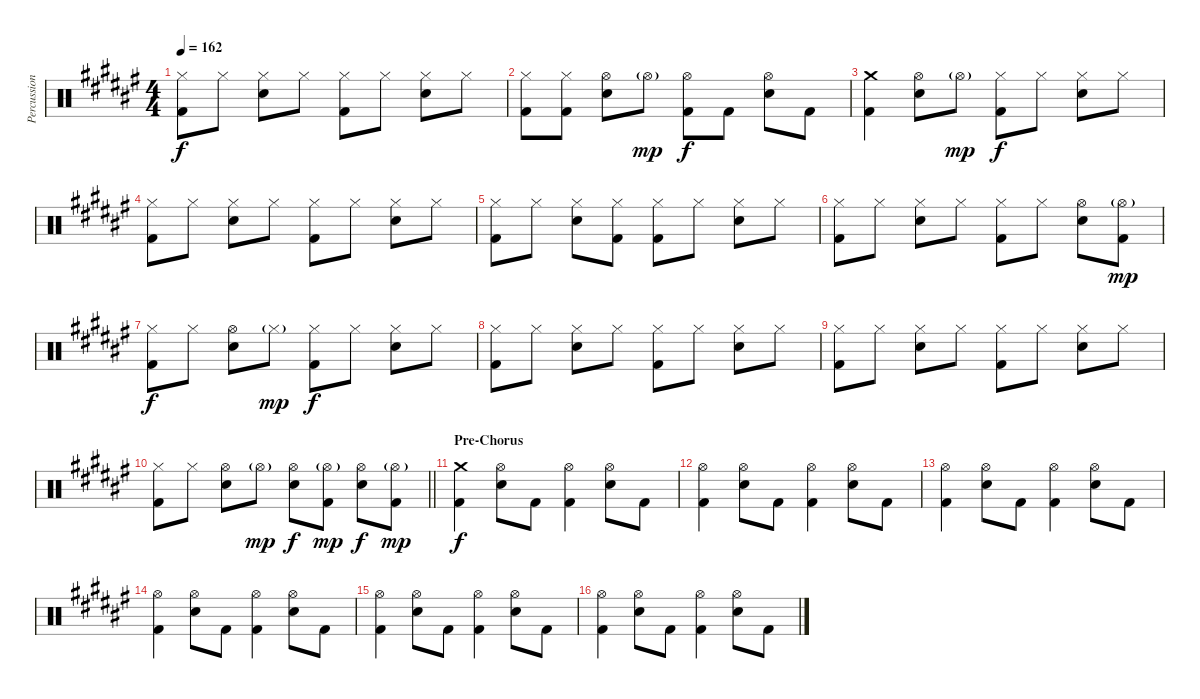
\track ("Percussion" "Percussion") {instrument percussion}
\staff {score}
\articulation defaults
\ts (4 4)
\tempo 162
\clef neutral
\ks f#
("Hi-Hat (closed)" "Kick (hit) 2").8{dy f} "Hi-Hat (closed)".8 ("Hi-Hat (closed)" "Electric Snare (hit)").8 "Hi-Hat (closed)".8 ("Hi-Hat (closed)" "Kick (hit) 2").8 "Hi-Hat (closed)".8 ("Hi-Hat (closed)" "Electric Snare (hit)").8 "Hi-Hat (closed)".8 |
("Hi-Hat (closed)" "Kick (hit) 2").8 ("Hi-Hat (closed)" "Kick (hit) 2").8 ("Hi-Hat (open)" "Electric Snare (hit)").8 "Hi-Hat (open)"{g}.8{dy mp} ("Hi-Hat (open)" "Kick (hit) 2").8{dy f} "Kick (hit) 2".8 ("Hi-Hat (open)" "Electric Snare (hit)").8 "Kick (hit) 2".8 |
("Crash medium (hit)" "Kick (hit) 2").4 ("Hi-Hat (open)" "Electric Snare (hit)").8 "Hi-Hat (open)"{g}.8{dy mp} ("Hi-Hat (closed)" "Kick (hit) 2").8{dy f} "Hi-Hat (closed)".8 ("Hi-Hat (closed)" "Electric Snare (hit)").8 "Hi-Hat (closed)".8 |
("Hi-Hat (closed)" "Kick (hit) 2").8 "Hi-Hat (closed)".8 ("Hi-Hat (closed)" "Electric Snare (hit)").8 "Hi-Hat (closed)".8 ("Hi-Hat (closed)" "Kick (hit) 2").8 "Hi-Hat (closed)".8 ("Hi-Hat (closed)" "Electric Snare (hit)").8 "Hi-Hat (closed)".8 |
("Hi-Hat (closed)" "Kick (hit) 2").8 "Hi-Hat (closed)".8 ("Hi-Hat (closed)" "Electric Snare (hit)").8 ("Hi-Hat (closed)" "Kick (hit) 2").8 ("Hi-Hat (closed)" "Kick (hit) 2").8 "Hi-Hat (closed)".8 ("Hi-Hat (closed)" "Electric Snare (hit)").8 "Hi-Hat (closed)".8 |
("Hi-Hat (closed)" "Kick (hit) 2").8 "Hi-Hat (closed)".8 ("Hi-Hat (closed)" "Electric Snare (hit)").8 "Hi-Hat (closed)".8 ("Hi-Hat (closed)" "Kick (hit) 2").8 "Hi-Hat (closed)".8 ("Hi-Hat (open)" "Electric Snare (hit)").8 ("Hi-Hat (open)"{g} "Kick (hit) 2").8{dy mp} |
("Hi-Hat (closed)" "Kick (hit) 2").8{dy f} "Hi-Hat (closed)".8 ("Hi-Hat (open)" "Electric Snare (hit)").8 "Hi-Hat (closed)"{g}.8{dy mp} ("Hi-Hat (closed)" "Kick (hit) 2").8{dy f} "Hi-Hat (closed)".8 ("Hi-Hat (closed)" "Electric Snare (hit)").8 "Hi-Hat (closed)".8 |
("Hi-Hat (closed)" "Kick (hit) 2").8 "Hi-Hat (closed)".8 ("Hi-Hat (closed)" "Electric Snare (hit)").8 "Hi-Hat (closed)".8 ("Hi-Hat (closed)" "Kick (hit) 2").8 "Hi-Hat (closed)".8 ("Hi-Hat (closed)" "Electric Snare (hit)").8 "Hi-Hat (closed)".8 |
("Hi-Hat (closed)" "Kick (hit) 2").8 "Hi-Hat (closed)".8 ("Hi-Hat (closed)" "Electric Snare (hit)").8 "Hi-Hat (closed)".8 ("Hi-Hat (closed)" "Kick (hit) 2").8 "Hi-Hat (closed)".8 ("Hi-Hat (closed)" "Electric Snare (hit)").8 "Hi-Hat (closed)".8 |
\barLineRight lightlight
("Hi-Hat (closed)" "Kick (hit) 2").8 "Hi-Hat (closed)".8 ("Hi-Hat (open)" "Electric Snare (hit)").8 "Hi-Hat (open)"{g}.8{dy mp} ("Hi-Hat (open)" "Electric Snare (hit)").8{dy f} ("Hi-Hat (open)"{g} "Kick (hit) 2").8{dy mp} ("Hi-Hat (open)" "Electric Snare (hit)").8{dy f} ("Hi-Hat (open)"{g} "Kick (hit) 2").8{dy mp} |
\section ("" "Pre-Chorus")
("Crash medium (hit)" "Kick (hit) 2").4{dy f} ("Hi-Hat (open)" "Electric Snare (hit)").8 "Kick (hit) 2".8 ("Hi-Hat (open)" "Kick (hit) 2").4 ("Hi-Hat (open)" "Electric Snare (hit)").8 "Kick (hit) 2".8 |
("Hi-Hat (open)" "Kick (hit) 2").4 ("Hi-Hat (open)" "Electric Snare (hit)").8 "Kick (hit) 2".8 ("Hi-Hat (open)" "Kick (hit) 2").4 ("Hi-Hat (open)" "Electric Snare (hit)").8 "Kick (hit) 2".8 |
("Hi-Hat (open)" "Kick (hit) 2").4 ("Hi-Hat (open)" "Electric Snare (hit)").8 "Kick (hit) 2".8 ("Hi-Hat (open)" "Kick (hit) 2").4 ("Hi-Hat (open)" "Electric Snare (hit)").8 "Kick (hit) 2".8 |
("Hi-Hat (open)" "Kick (hit) 2").4 ("Hi-Hat (open)" "Electric Snare (hit)").8 "Kick (hit) 2".8 ("Hi-Hat (open)" "Kick (hit) 2").4 ("Hi-Hat (open)" "Electric Snare (hit)").8 "Kick (hit) 2".8 |
("Hi-Hat (open)" "Kick (hit) 2").4 ("Hi-Hat (open)" "Electric Snare (hit)").8 "Kick (hit) 2".8 ("Hi-Hat (open)" "Kick (hit) 2").4 ("Hi-Hat (open)" "Electric Snare (hit)").8 "Kick (hit) 2".8 |
("Hi-Hat (open)" "Kick (hit) 2").4 ("Hi-Hat (open)" "Electric Snare (hit)").8 "Kick (hit) 2".8 ("Hi-Hat (open)" "Kick (hit) 2").4 ("Hi-Hat (open)" "Electric Snare (hit)").8 "Kick (hit) 2".8
